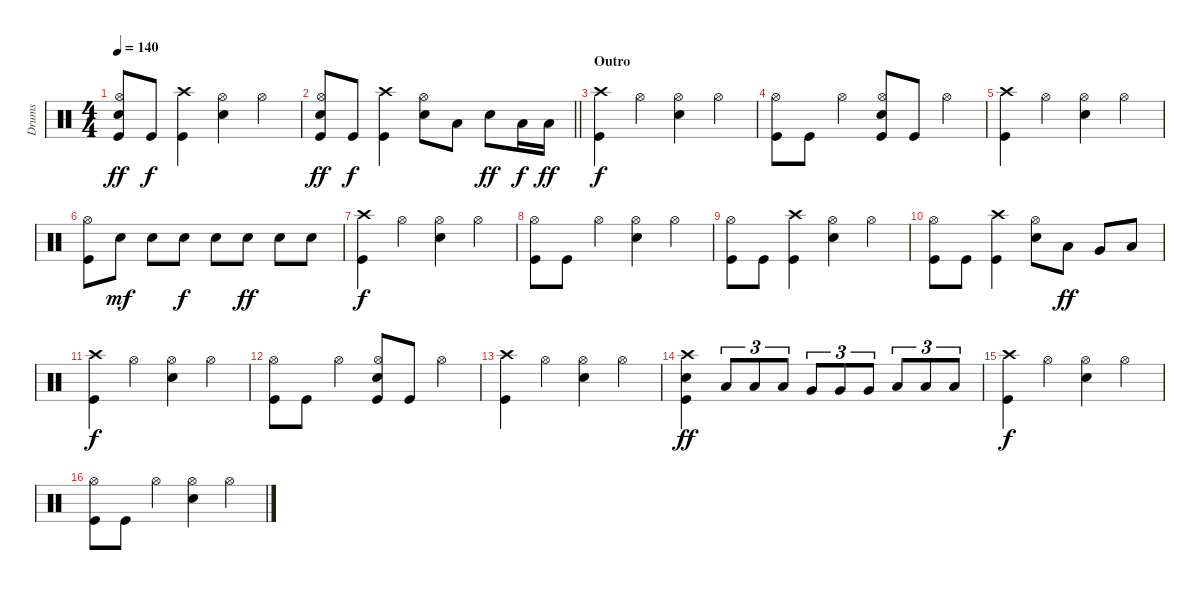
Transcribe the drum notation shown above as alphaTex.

\track ("Drums" "Drums") {instrument percussion}
\staff {score}
\articulation defaults
\ts (4 4)
\tempo 140
\clef neutral
\ks c
("Kick (hit)" "Hi-Hat (open)" "Snare (hit) 2").8{dy ff} "Kick (hit)".8{dy f} ("Kick (hit)" "Crash high (hit)").4 ("Snare (hit) 2" "Hi-Hat (open)").4 "Hi-Hat (open)".4 |
\barLineRight lightlight
("Kick (hit)" "Hi-Hat (open)" "Snare (hit) 2").8{dy ff} "Kick (hit)".8{dy f} ("Kick (hit)" "Crash high (hit)").4 ("Snare (hit) 2" "Hi-Hat (open)").8 "Low Tom (hit)".8 "Snare (hit) 2".8{dy ff} "Low Floor Tom (hit)".16{dy f} "Low Floor Tom (hit)".16{dy ff} |
\section ("" "Outro")
("Crash high (hit)" "Kick (hit)").4{dy f} "Hi-Hat (open)".4 ("Hi-Hat (open)" "Snare (hit) 2").4 "Hi-Hat (open)".4 |
("Hi-Hat (open)" "Kick (hit)").8 "Kick (hit)".8 "Hi-Hat (open)".4 ("Snare (hit) 2" "Kick (hit)" "Hi-Hat (open)").8 "Kick (hit)".8 "Hi-Hat (open)".4 |
("Crash high (hit)" "Kick (hit)").4 "Hi-Hat (open)".4 ("Hi-Hat (open)" "Snare (hit) 2").4 "Hi-Hat (open)".4 |
("Hi-Hat (open)" "Kick (hit)").8 "Snare (hit) 2".8{dy mf} "Snare (hit) 2".8 "Snare (hit) 2".8{dy f} "Snare (hit) 2".8 "Snare (hit) 2".8{dy ff} "Snare (hit) 2".8 "Snare (hit) 2".8 |
("Crash high (hit)" "Kick (hit)").4{dy f} "Hi-Hat (open)".4 ("Hi-Hat (open)" "Snare (hit) 2").4 "Hi-Hat (open)".4 |
("Hi-Hat (open)" "Kick (hit)").8 "Kick (hit)".8 "Hi-Hat (open)".4 ("Snare (hit) 2" "Hi-Hat (open)").4 "Hi-Hat (open)".4 |
("Kick (hit)" "Hi-Hat (open)").8 "Kick (hit)".8 ("Kick (hit)" "Crash high (hit)").4 ("Snare (hit) 2" "Hi-Hat (open)").4 "Hi-Hat (open)".4 |
("Kick (hit)" "Hi-Hat (open)").8 "Kick (hit)".8 ("Kick (hit)" "Crash high (hit)").4 ("Snare (hit) 2" "Hi-Hat (open)").8 "Low Tom (hit)".8{dy ff} "Very Low Tom (hit)".8 "Low Floor Tom (hit)".8 |
("Crash high (hit)" "Kick (hit)").4{dy f} "Hi-Hat (open)".4 ("Hi-Hat (open)" "Snare (hit) 2").4 "Hi-Hat (open)".4 |
("Hi-Hat (open)" "Kick (hit)").8 "Kick (hit)".8 "Hi-Hat (open)".4 ("Snare (hit) 2" "Kick (hit)" "Hi-Hat (open)").8 "Kick (hit)".8 "Hi-Hat (open)".4 |
("Crash high (hit)" "Kick (hit)").4 "Hi-Hat (open)".4 ("Hi-Hat (open)" "Snare (hit) 2").4 "Hi-Hat (open)".4 |
("Crash high (hit)" "Snare (hit) 2" "Kick (hit)").4{dy ff} "Low Tom (hit)".8{tu (3 2)} "Low Tom (hit)".8{tu (3 2)} "Low Tom (hit)".8{tu (3 2)} "Very Low Tom (hit)".8{tu (3 2)} "Very Low Tom (hit)".8{tu (3 2)} "Very Low Tom (hit)".8{tu (3 2)} "Low Floor Tom (hit)".8{tu (3 2)} "Low Floor Tom (hit)".8{tu (3 2)} "Low Floor Tom (hit)".8{tu (3 2)} |
("Crash high (hit)" "Kick (hit)").4{dy f} "Hi-Hat (open)".4 ("Hi-Hat (open)" "Snare (hit) 2").4 "Hi-Hat (open)".4 |
("Hi-Hat (open)" "Kick (hit)").8 "Kick (hit)".8 "Hi-Hat (open)".4 ("Snare (hit) 2" "Hi-Hat (open)").4 "Hi-Hat (open)".4
